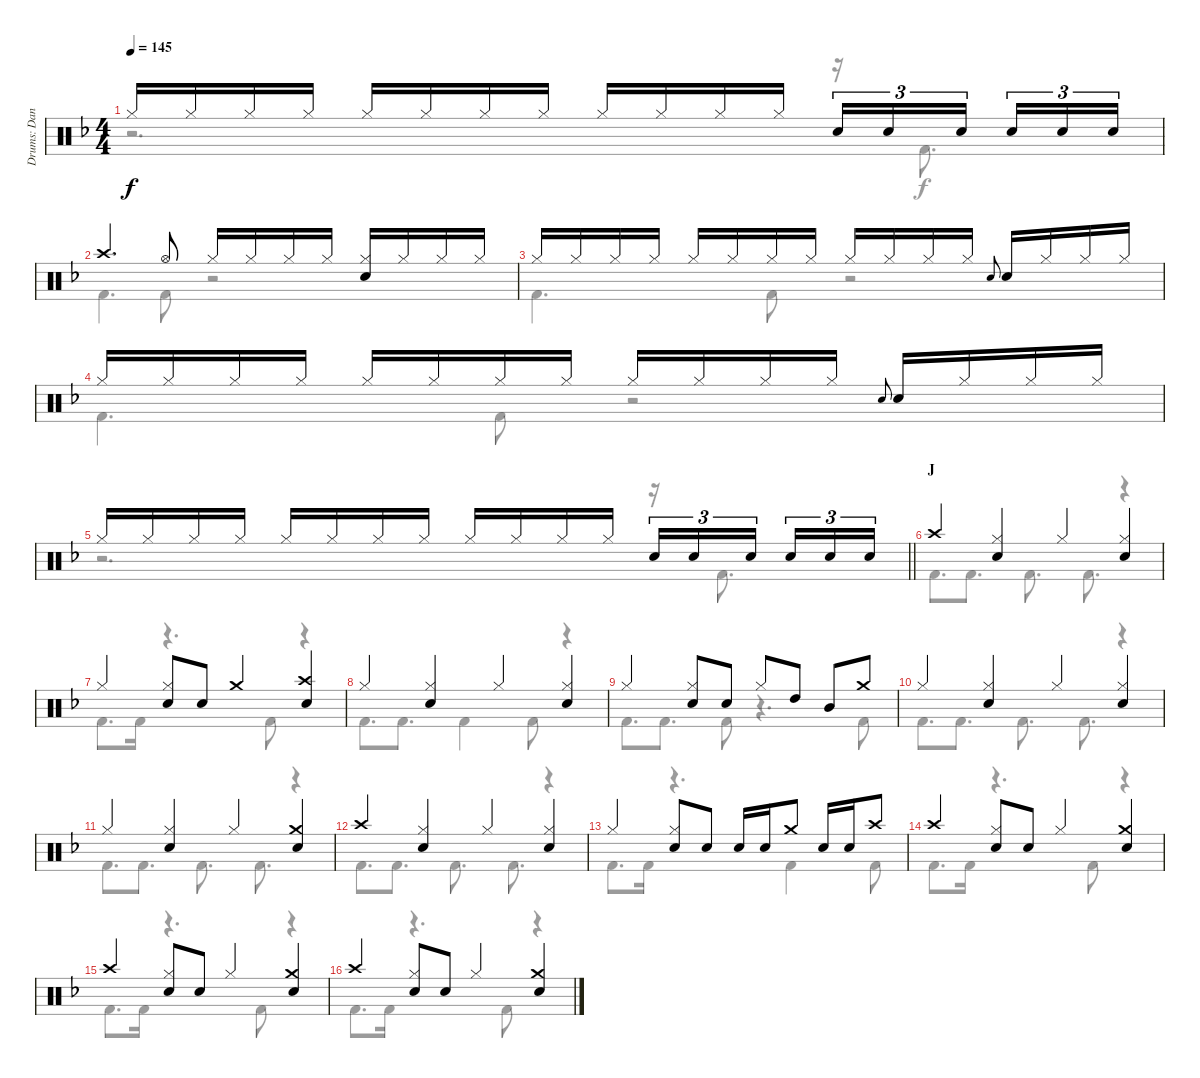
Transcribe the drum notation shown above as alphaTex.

\track ("Drums: Dana" "Drums: Dan") {instrument percussion}
\staff {score}
\articulation defaults
\voice
\ts (4 4)
\tempo 145
\clef neutral
\ks f "Hi-Hat (closed)".16{dy f} "Hi-Hat (closed)".16 "Hi-Hat (closed)".16 "Hi-Hat (closed)".16 "Hi-Hat (closed)".16 "Hi-Hat (closed)".16 "Hi-Hat (closed)".16 "Hi-Hat (closed)".16 "Hi-Hat (closed)".16 "Hi-Hat (closed)".16 "Hi-Hat (closed)".16 "Hi-Hat (closed)".16 "Snare (hit) 2".16{tu (3 2)} "Snare (hit) 2".16{tu (3 2)} "Snare (hit) 2".16{tu (3 2) beam splitsecondary} "Snare (hit) 2".16{tu (3 2)} "Snare (hit) 2".16{tu (3 2)} "Snare (hit) 2".16{tu (3 2)}
|
"Crash high (hit)".4{d} "Hi-Hat (open)".8 "Hi-Hat (closed)".16 "Hi-Hat (closed)".16 "Hi-Hat (closed)".16 "Hi-Hat (closed)".16 ("Hi-Hat (closed)" "Snare (hit) 2").16 "Hi-Hat (closed)".16 "Hi-Hat (closed)".16 "Hi-Hat (closed)".16 |
"Hi-Hat (closed)".16 "Hi-Hat (closed)".16 "Hi-Hat (closed)".16 "Hi-Hat (closed)".16 "Hi-Hat (closed)".16 "Hi-Hat (closed)".16 "Hi-Hat (closed)".16 "Hi-Hat (closed)".16 "Hi-Hat (closed)".16 "Hi-Hat (closed)".16 "Hi-Hat (closed)".16 "Hi-Hat (closed)".16 "Electric Snare (hit)".8{gr onbeat} "Snare (hit) 2".16 "Hi-Hat (closed)".16 "Hi-Hat (closed)".16 "Hi-Hat (closed)".16 |
"Hi-Hat (closed)".16 "Hi-Hat (closed)".16 "Hi-Hat (closed)".16 "Hi-Hat (closed)".16 "Hi-Hat (closed)".16 "Hi-Hat (closed)".16 "Hi-Hat (closed)".16 "Hi-Hat (closed)".16 "Hi-Hat (closed)".16 "Hi-Hat (closed)".16 "Hi-Hat (closed)".16 "Hi-Hat (closed)".16 "Electric Snare (hit)".8{gr onbeat} "Snare (hit) 2".16 "Hi-Hat (closed)".16 "Hi-Hat (closed)".16 "Hi-Hat (closed)".16 |
\barLineRight lightlight "Hi-Hat (closed)".16 "Hi-Hat (closed)".16 "Hi-Hat (closed)".16 "Hi-Hat (closed)".16 "Hi-Hat (closed)".16 "Hi-Hat (closed)".16 "Hi-Hat (closed)".16 "Hi-Hat (closed)".16 "Hi-Hat (closed)".16 "Hi-Hat (closed)".16 "Hi-Hat (closed)".16 "Hi-Hat (closed)".16 "Snare (hit) 2".16{tu (3 2)} "Snare (hit) 2".16{tu (3 2)} "Snare (hit) 2".16{tu (3 2) beam splitsecondary} "Snare (hit) 2".16{tu (3 2)} "Snare (hit) 2".16{tu (3 2)} "Snare (hit) 2".16{tu (3 2)}
|
\section ("" "J")
"Crash high (hit)".4 ("Hi-Hat (closed)" "Snare (hit) 2").4 "Hi-Hat (closed)".4 ("Hi-Hat (closed)" "Snare (hit) 2").4 |
"Hi-Hat (closed)".4 ("Hi-Hat (closed)" "Snare (hit) 2").8 "Snare (hit) 2".8 "Crash medium (hit)".4 ("Crash high (hit)" "Snare (hit) 2").4 |
"Hi-Hat (closed)".4 ("Hi-Hat (closed)" "Snare (hit) 2").4 "Hi-Hat (closed)".4 ("Hi-Hat (closed)" "Snare (hit) 2").4 |
"Hi-Hat (closed)".4 ("Hi-Hat (closed)" "Snare (hit) 2").8 "Snare (hit) 2".8 "Hi-Hat (closed)".8 "High Tom (hit)".8 "Mid Tom (hit)".8 "Crash medium (hit)".8 |
"Hi-Hat (closed)".4 ("Hi-Hat (closed)" "Snare (hit) 2").4 "Hi-Hat (closed)".4 ("Hi-Hat (closed)" "Snare (hit) 2").4 |
"Hi-Hat (closed)".4 ("Hi-Hat (closed)" "Snare (hit) 2").4 "Hi-Hat (closed)".4 ("Crash medium (hit)" "Snare (hit) 2").4 |
"Crash high (hit)".4 ("Hi-Hat (closed)" "Snare (hit) 2").4 "Hi-Hat (closed)".4 ("Hi-Hat (closed)" "Snare (hit) 2").4 |
"Hi-Hat (closed)".4 ("Hi-Hat (closed)" "Snare (hit) 2").8 "Snare (hit) 2".8 "Snare (hit) 2".16 "Snare (hit) 2".16 "Crash medium (hit)".8 "Snare (hit) 2".16 "Snare (hit) 2".16 "Crash high (hit)".8 |
"Crash high (hit)".4 ("Hi-Hat (closed)" "Snare (hit) 2").8 "Snare (hit) 2".8 "Hi-Hat (closed)".4 ("Crash medium (hit)" "Snare (hit) 2").4 |
"Crash high (hit)".4 ("Hi-Hat (closed)" "Snare (hit) 2").8 "Snare (hit) 2".8 "Hi-Hat (closed)".4 ("Crash medium (hit)" "Snare (hit) 2").4 |
"Crash high (hit)".4 ("Hi-Hat (closed)" "Snare (hit) 2").8 "Snare (hit) 2".8 "Hi-Hat (closed)".4 ("Crash medium (hit)" "Snare (hit) 2").4
\voice
\clef neutral
\ottava regular
\simile none
\ks f
r.2{d dy f} r.16 "Kick (hit) 2".8{d} |
"Kick (hit) 2".4{d} "Kick (hit) 2".8 r.2 |
"Kick (hit) 2".4{d} "Kick (hit) 2".8 r.2 |
"Kick (hit) 2".4{d} "Kick (hit) 2".8 r.2 |
\barLineRight lightlight
r.2{d} r.16 "Kick (hit) 2".8{d} |
"Kick (hit) 2".8{d} "Kick (hit) 2".8{d} "Kick (hit) 2".8{d} "Kick (hit) 2".8{d} r.4 |
"Kick (hit) 2".8{d} "Kick (hit) 2".16 r.4{d} "Kick (hit) 2".8 r.4 |
"Kick (hit) 2".8{d} "Kick (hit) 2".8{d} "Kick (hit) 2".4 "Kick (hit) 2".8 r.4 |
"Kick (hit) 2".8{d} "Kick (hit) 2".8{d} "Kick (hit) 2".8 r.4{d} "Kick (hit) 2".8 |
"Kick (hit) 2".8{d} "Kick (hit) 2".8{d} "Kick (hit) 2".8{d} "Kick (hit) 2".8{d} r.4 |
"Kick (hit) 2".8{d} "Kick (hit) 2".8{d} "Kick (hit) 2".8{d} "Kick (hit) 2".8{d} r.4 |
"Kick (hit) 2".8{d} "Kick (hit) 2".8{d} "Kick (hit) 2".8{d} "Kick (hit) 2".8{d} r.4 |
"Kick (hit) 2".8{d} "Kick (hit) 2".16 r.4{d} "Kick (hit) 2".4 "Kick (hit) 2".8 |
"Kick (hit) 2".8{d} "Kick (hit) 2".16 r.4{d} "Kick (hit) 2".8 r.4 |
"Kick (hit) 2".8{d} "Kick (hit) 2".16 r.4{d} "Kick (hit) 2".8 r.4 |
"Kick (hit) 2".8{d} "Kick (hit) 2".16 r.4{d} "Kick (hit) 2".8 r.4
